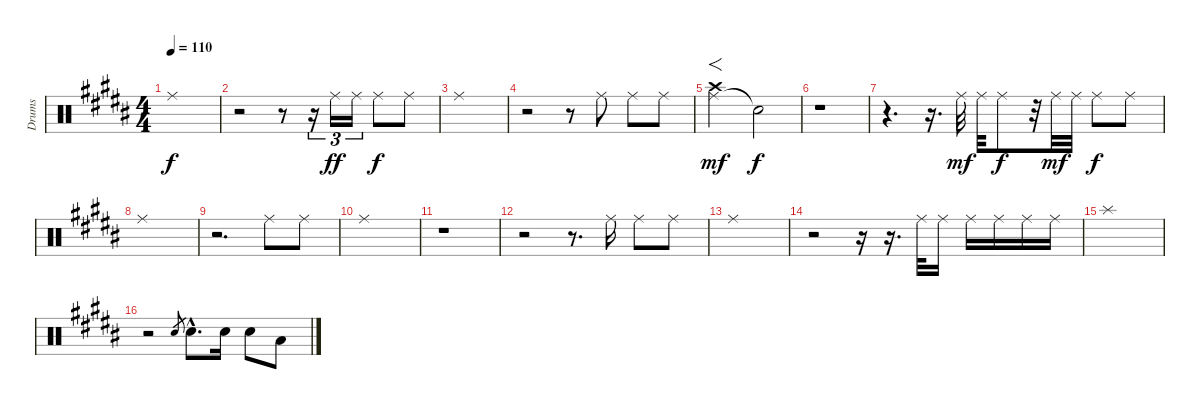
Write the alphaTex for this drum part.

\track ("Drums" "Drums") {instrument percussion}
\staff {score}
\articulation defaults
\ts (4 4)
\tempo 110
\clef neutral
\ks b "Ride (middle)".1{dy f}
|
r.2 r.8 r.16{tu (3 2)} "Ride (middle)".16{tu (3 2) dy ff} "Ride (middle)".16{tu (3 2)} "Ride (middle)".8{dy f} "Ride (middle)".8 |
"Ride (middle)".1 |
r.2 r.8 "Ride (middle)".8 "Ride (middle)".8 "Ride (middle)".8 |
("Ride (middle)" "Crash high (hit)").2{f dy mf} "Snare (hit)"{t}.2{dy f} |
r.1 |
r.4{d} r.16{d} "Ride (middle)".32{dy mf} "Ride (middle)".32 "Ride (middle)".8{dy f} r.32 "Ride (middle)".32{dy mf} "Ride (middle)".32 "Ride (middle)".8{dy f} "Ride (middle)".8 |
"Ride (middle)".1 |
r.2{d} "Ride (middle)".8 "Ride (middle)".8 |
"Ride (middle)".1 |
r.1 |
r.2 r.8{d} "Ride (middle)".16 "Ride (middle)".8 "Ride (middle)".8 |
"Ride (middle)".1 |
r.2 r.16 r.16{d} "Ride (middle)".32 "Ride (middle)".16 "Ride (middle)".16 "Ride (middle)".16 "Ride (middle)".16 "Ride (middle)".16 |
"Splash (hit)".1 |
r.2 "Electric Snare (hit)".8{gr} "Electric Snare (hit)"{hac}.8{d} "Electric Snare (hit)".16 "Electric Snare (hit)".8 "Low Tom (hit)".8
